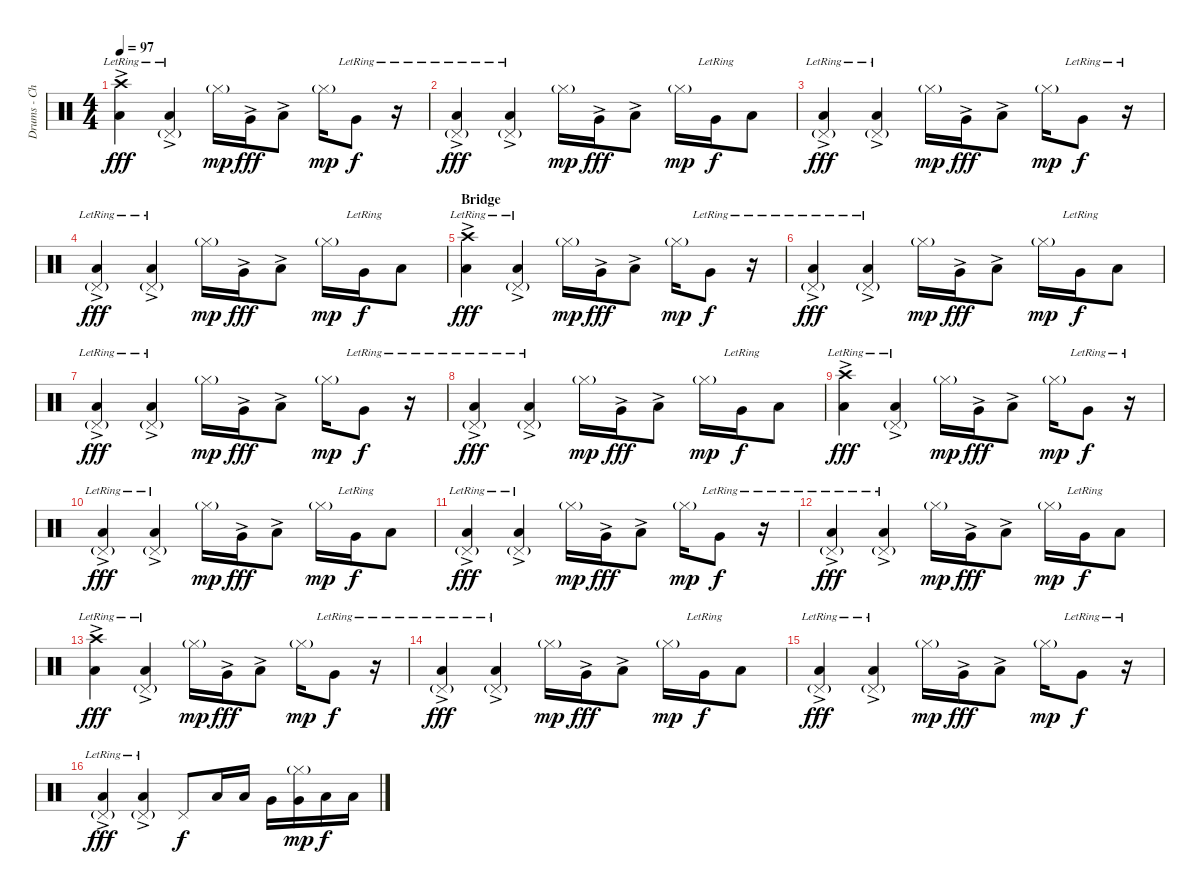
\track ("Drums - Chad S" "Drums - Ch") {instrument percussion}
\staff {score}
\articulation defaults
\ts (4 4)
\tempo 97
\clef neutral
\ks c
("Crash high (hit)"{ac} "Low Floor Tom (hit)"{ac lr}).4{dy fff} ("Pedal Hi-Hat (hit)"{g} "Low Floor Tom (hit)"{ac lr}).4 "Hi-Hat (closed)"{g}.16{dy mp} "Very Low Tom (hit)"{ac}.16{dy fff} "Low Floor Tom (hit)"{ac}.8 "Hi-Hat (closed)"{g}.16{dy mp} "Very Low Tom (hit)"{lr}.8{dy f} r.16 |
("Pedal Hi-Hat (hit)"{g} "Low Floor Tom (hit)"{ac lr}).4{dy fff} ("Pedal Hi-Hat (hit)"{g} "Low Floor Tom (hit)"{ac lr}).4 "Hi-Hat (closed)"{g}.16{dy mp} "Very Low Tom (hit)"{ac}.16{dy fff} "Low Floor Tom (hit)"{ac}.8 "Hi-Hat (closed)"{g}.16{dy mp} "Very Low Tom (hit)"{lr}.16{dy f} "Low Floor Tom (hit)".8 |
("Pedal Hi-Hat (hit)"{g} "Low Floor Tom (hit)"{ac lr}).4{dy fff} ("Pedal Hi-Hat (hit)"{g} "Low Floor Tom (hit)"{ac lr}).4 "Hi-Hat (closed)"{g}.16{dy mp} "Very Low Tom (hit)"{ac}.16{dy fff} "Low Floor Tom (hit)"{ac}.8 "Hi-Hat (closed)"{g}.16{dy mp} "Very Low Tom (hit)"{lr}.8{dy f} r.16 |
("Pedal Hi-Hat (hit)"{g} "Low Floor Tom (hit)"{ac lr}).4{dy fff} ("Pedal Hi-Hat (hit)"{g} "Low Floor Tom (hit)"{ac lr}).4 "Hi-Hat (closed)"{g}.16{dy mp} "Very Low Tom (hit)"{ac}.16{dy fff} "Low Floor Tom (hit)"{ac}.8 "Hi-Hat (closed)"{g}.16{dy mp} "Very Low Tom (hit)"{lr}.16{dy f} "Low Floor Tom (hit)".8 |
\section ("" "Bridge")
("Crash high (hit)"{ac} "Low Floor Tom (hit)"{ac lr}).4{dy fff} ("Pedal Hi-Hat (hit)"{g} "Low Floor Tom (hit)"{ac lr}).4 "Hi-Hat (closed)"{g}.16{dy mp} "Very Low Tom (hit)"{ac}.16{dy fff} "Low Floor Tom (hit)"{ac}.8 "Hi-Hat (closed)"{g}.16{dy mp} "Very Low Tom (hit)"{lr}.8{dy f} r.16 |
("Pedal Hi-Hat (hit)"{g} "Low Floor Tom (hit)"{ac lr}).4{dy fff} ("Pedal Hi-Hat (hit)"{g} "Low Floor Tom (hit)"{ac lr}).4 "Hi-Hat (closed)"{g}.16{dy mp} "Very Low Tom (hit)"{ac}.16{dy fff} "Low Floor Tom (hit)"{ac}.8 "Hi-Hat (closed)"{g}.16{dy mp} "Very Low Tom (hit)"{lr}.16{dy f} "Low Floor Tom (hit)".8 |
("Pedal Hi-Hat (hit)"{g} "Low Floor Tom (hit)"{ac lr}).4{dy fff} ("Pedal Hi-Hat (hit)"{g} "Low Floor Tom (hit)"{ac lr}).4 "Hi-Hat (closed)"{g}.16{dy mp} "Very Low Tom (hit)"{ac}.16{dy fff} "Low Floor Tom (hit)"{ac}.8 "Hi-Hat (closed)"{g}.16{dy mp} "Very Low Tom (hit)"{lr}.8{dy f} r.16 |
("Pedal Hi-Hat (hit)"{g} "Low Floor Tom (hit)"{ac lr}).4{dy fff} ("Pedal Hi-Hat (hit)"{g} "Low Floor Tom (hit)"{ac lr}).4 "Hi-Hat (closed)"{g}.16{dy mp} "Very Low Tom (hit)"{ac}.16{dy fff} "Low Floor Tom (hit)"{ac}.8 "Hi-Hat (closed)"{g}.16{dy mp} "Very Low Tom (hit)"{lr}.16{dy f} "Low Floor Tom (hit)".8 |
("Crash high (hit)"{ac} "Low Floor Tom (hit)"{ac lr}).4{dy fff} ("Pedal Hi-Hat (hit)"{g} "Low Floor Tom (hit)"{ac lr}).4 "Hi-Hat (closed)"{g}.16{dy mp} "Very Low Tom (hit)"{ac}.16{dy fff} "Low Floor Tom (hit)"{ac}.8 "Hi-Hat (closed)"{g}.16{dy mp} "Very Low Tom (hit)"{lr}.8{dy f} r.16 |
("Pedal Hi-Hat (hit)"{g} "Low Floor Tom (hit)"{ac lr}).4{dy fff} ("Pedal Hi-Hat (hit)"{g} "Low Floor Tom (hit)"{ac lr}).4 "Hi-Hat (closed)"{g}.16{dy mp} "Very Low Tom (hit)"{ac}.16{dy fff} "Low Floor Tom (hit)"{ac}.8 "Hi-Hat (closed)"{g}.16{dy mp} "Very Low Tom (hit)"{lr}.16{dy f} "Low Floor Tom (hit)".8 |
("Pedal Hi-Hat (hit)"{g} "Low Floor Tom (hit)"{ac lr}).4{dy fff} ("Pedal Hi-Hat (hit)"{g} "Low Floor Tom (hit)"{ac lr}).4 "Hi-Hat (closed)"{g}.16{dy mp} "Very Low Tom (hit)"{ac}.16{dy fff} "Low Floor Tom (hit)"{ac}.8 "Hi-Hat (closed)"{g}.16{dy mp} "Very Low Tom (hit)"{lr}.8{dy f} r.16 |
("Pedal Hi-Hat (hit)"{g} "Low Floor Tom (hit)"{ac lr}).4{dy fff} ("Pedal Hi-Hat (hit)"{g} "Low Floor Tom (hit)"{ac lr}).4 "Hi-Hat (closed)"{g}.16{dy mp} "Very Low Tom (hit)"{ac}.16{dy fff} "Low Floor Tom (hit)"{ac}.8 "Hi-Hat (closed)"{g}.16{dy mp} "Very Low Tom (hit)"{lr}.16{dy f} "Low Floor Tom (hit)".8 |
("Crash high (hit)"{ac} "Low Floor Tom (hit)"{ac lr}).4{dy fff} ("Pedal Hi-Hat (hit)"{g} "Low Floor Tom (hit)"{ac lr}).4 "Hi-Hat (closed)"{g}.16{dy mp} "Very Low Tom (hit)"{ac}.16{dy fff} "Low Floor Tom (hit)"{ac}.8 "Hi-Hat (closed)"{g}.16{dy mp} "Very Low Tom (hit)"{lr}.8{dy f} r.16 |
("Pedal Hi-Hat (hit)"{g} "Low Floor Tom (hit)"{ac lr}).4{dy fff} ("Pedal Hi-Hat (hit)"{g} "Low Floor Tom (hit)"{ac lr}).4 "Hi-Hat (closed)"{g}.16{dy mp} "Very Low Tom (hit)"{ac}.16{dy fff} "Low Floor Tom (hit)"{ac}.8 "Hi-Hat (closed)"{g}.16{dy mp} "Very Low Tom (hit)"{lr}.16{dy f} "Low Floor Tom (hit)".8 |
("Pedal Hi-Hat (hit)"{g} "Low Floor Tom (hit)"{ac lr}).4{dy fff} ("Pedal Hi-Hat (hit)"{g} "Low Floor Tom (hit)"{ac lr}).4 "Hi-Hat (closed)"{g}.16{dy mp} "Very Low Tom (hit)"{ac}.16{dy fff} "Low Floor Tom (hit)"{ac}.8 "Hi-Hat (closed)"{g}.16{dy mp} "Very Low Tom (hit)"{lr}.8{dy f} r.16 |
("Pedal Hi-Hat (hit)"{g} "Low Floor Tom (hit)"{ac lr}).4{dy fff} ("Pedal Hi-Hat (hit)"{g} "Low Floor Tom (hit)"{ac lr}).4 "Pedal Hi-Hat (hit)".8{dy f} "Low Tom (hit)".16 "Low Tom (hit)".16 "Very Low Tom (hit)".16 ("Hi-Hat (closed)"{g} "Very Low Tom (hit)").16{dy mp} "Low Floor Tom (hit)".16{dy f} "Low Floor Tom (hit)".16
